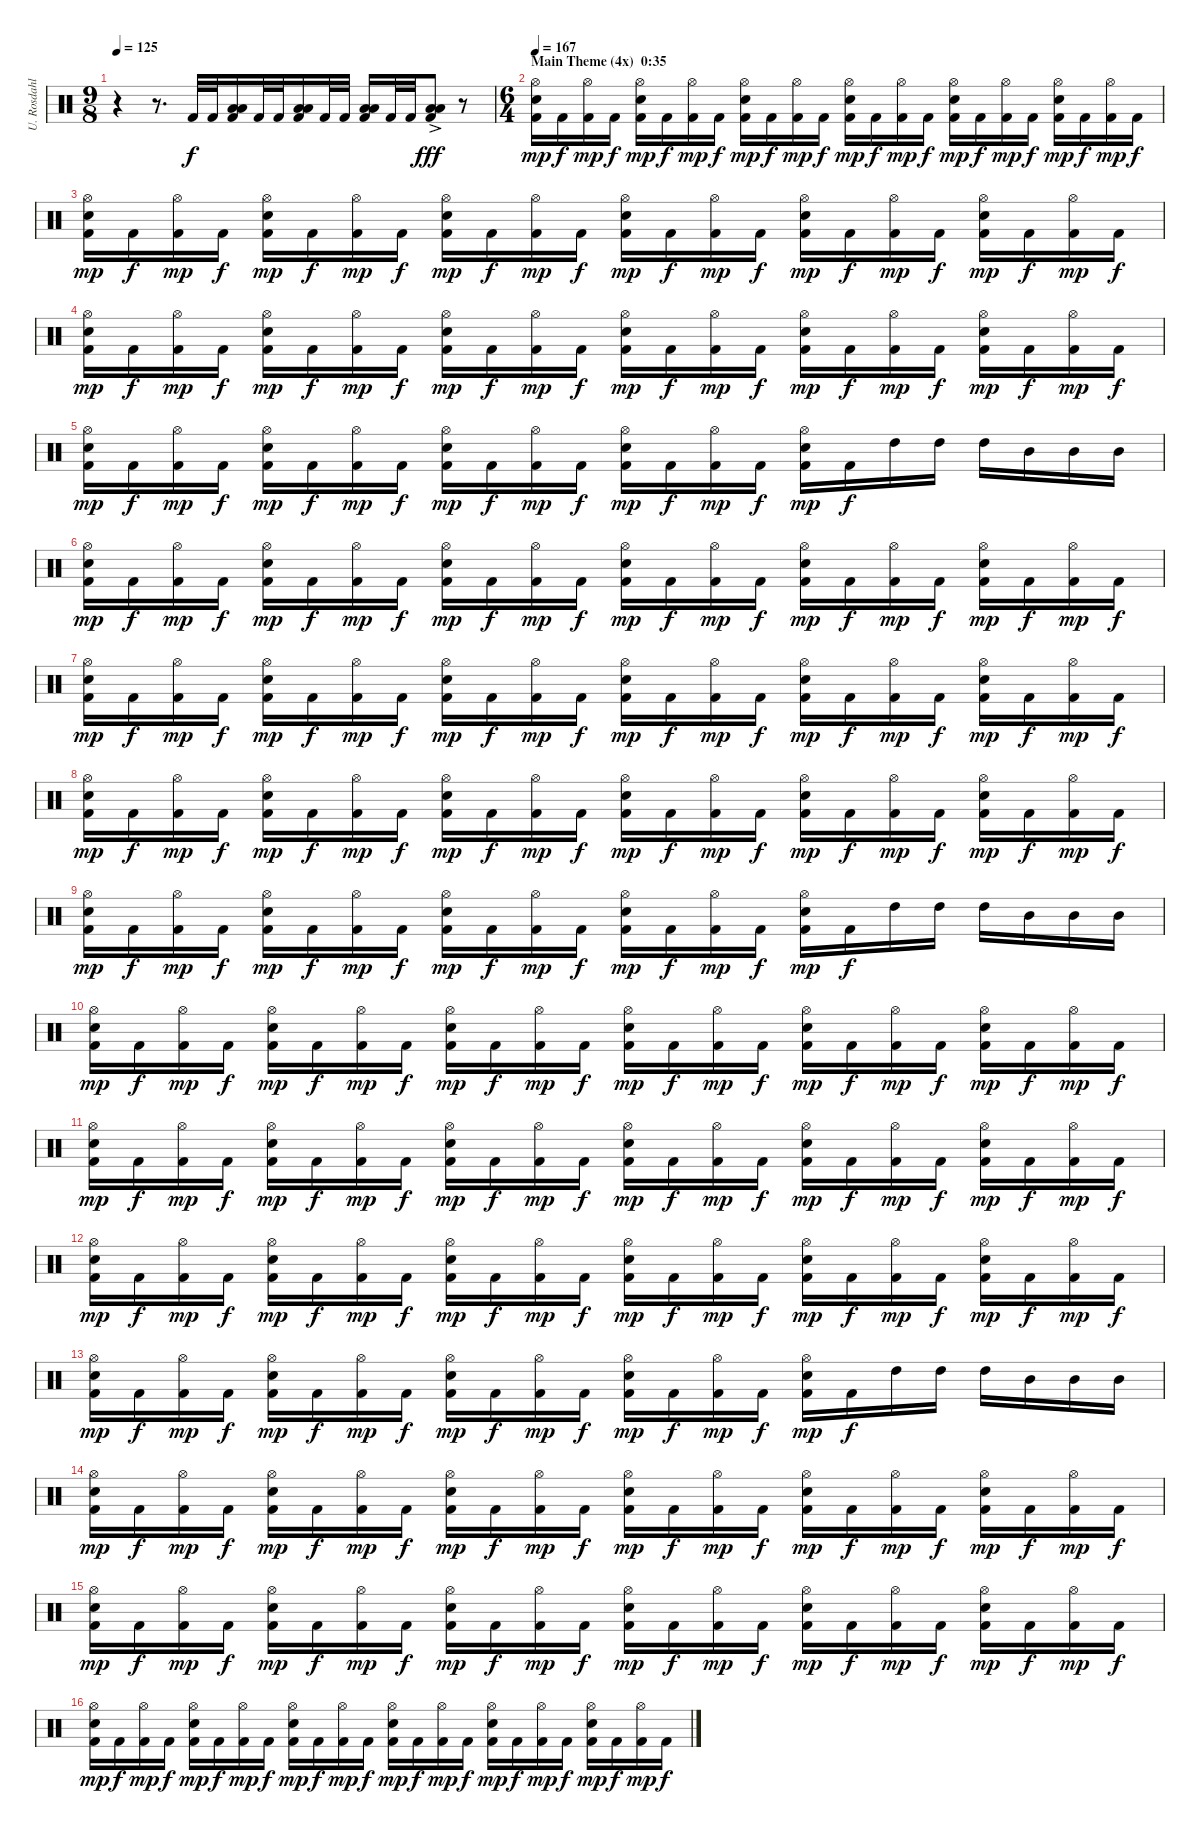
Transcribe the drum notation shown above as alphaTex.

\track ("U. Rosdahl" "U. Rosdahl") {instrument percussion}
\staff {score}
\articulation defaults
\ts (9 8)
\tempo 125
\clef neutral
\ks c
r.4{dy f} r.8{d} "Kick (hit) 2".32 "Kick (hit) 2".32 ("Kick (hit) 2" "Low Tom (hit)" "Low Floor Tom (hit)").16 "Kick (hit) 2".32 "Kick (hit) 2".32 ("Kick (hit) 2" "Low Tom (hit)" "Low Floor Tom (hit)").16 "Kick (hit) 2".32 "Kick (hit) 2".32 ("Kick (hit) 2" "Low Tom (hit)" "Low Floor Tom (hit)").16 "Kick (hit) 2".32 "Kick (hit) 2".32 ("Kick (hit) 2"{ac} "Low Tom (hit)"{ac} "Low Floor Tom (hit)"{ac}).8{dy fff} r.8 |
\ts (6 4)
\section ("" "Main Theme (4x)  0:35")
\tempo 167
("Kick (hit) 2" "Electric Snare (hit)" "Hi-Hat (open)").16{dy mp} "Kick (hit) 2".16{dy f} ("Kick (hit) 2" "Hi-Hat (open)").16{dy mp} "Kick (hit) 2".16{dy f} ("Kick (hit) 2" "Electric Snare (hit)" "Hi-Hat (open)").16{dy mp} "Kick (hit) 2".16{dy f} ("Kick (hit) 2" "Hi-Hat (open)").16{dy mp} "Kick (hit) 2".16{dy f} ("Kick (hit) 2" "Electric Snare (hit)" "Hi-Hat (open)").16{dy mp} "Kick (hit) 2".16{dy f} ("Kick (hit) 2" "Hi-Hat (open)").16{dy mp} "Kick (hit) 2".16{dy f} ("Kick (hit) 2" "Electric Snare (hit)" "Hi-Hat (open)").16{dy mp} "Kick (hit) 2".16{dy f} ("Kick (hit) 2" "Hi-Hat (open)").16{dy mp} "Kick (hit) 2".16{dy f} ("Kick (hit) 2" "Electric Snare (hit)" "Hi-Hat (open)").16{dy mp} "Kick (hit) 2".16{dy f} ("Kick (hit) 2" "Hi-Hat (open)").16{dy mp} "Kick (hit) 2".16{dy f} ("Kick (hit) 2" "Electric Snare (hit)" "Hi-Hat (open)").16{dy mp} "Kick (hit) 2".16{dy f} ("Kick (hit) 2" "Hi-Hat (open)").16{dy mp} "Kick (hit) 2".16{dy f} |
("Kick (hit) 2" "Electric Snare (hit)" "Hi-Hat (open)").16{dy mp} "Kick (hit) 2".16{dy f} ("Kick (hit) 2" "Hi-Hat (open)").16{dy mp} "Kick (hit) 2".16{dy f} ("Kick (hit) 2" "Electric Snare (hit)" "Hi-Hat (open)").16{dy mp} "Kick (hit) 2".16{dy f} ("Kick (hit) 2" "Hi-Hat (open)").16{dy mp} "Kick (hit) 2".16{dy f} ("Kick (hit) 2" "Electric Snare (hit)" "Hi-Hat (open)").16{dy mp} "Kick (hit) 2".16{dy f} ("Kick (hit) 2" "Hi-Hat (open)").16{dy mp} "Kick (hit) 2".16{dy f} ("Kick (hit) 2" "Electric Snare (hit)" "Hi-Hat (open)").16{dy mp} "Kick (hit) 2".16{dy f} ("Kick (hit) 2" "Hi-Hat (open)").16{dy mp} "Kick (hit) 2".16{dy f} ("Kick (hit) 2" "Electric Snare (hit)" "Hi-Hat (open)").16{dy mp} "Kick (hit) 2".16{dy f} ("Kick (hit) 2" "Hi-Hat (open)").16{dy mp} "Kick (hit) 2".16{dy f} ("Kick (hit) 2" "Electric Snare (hit)" "Hi-Hat (open)").16{dy mp} "Kick (hit) 2".16{dy f} ("Kick (hit) 2" "Hi-Hat (open)").16{dy mp} "Kick (hit) 2".16{dy f} |
("Kick (hit) 2" "Electric Snare (hit)" "Hi-Hat (open)").16{dy mp} "Kick (hit) 2".16{dy f} ("Kick (hit) 2" "Hi-Hat (open)").16{dy mp} "Kick (hit) 2".16{dy f} ("Kick (hit) 2" "Electric Snare (hit)" "Hi-Hat (open)").16{dy mp} "Kick (hit) 2".16{dy f} ("Kick (hit) 2" "Hi-Hat (open)").16{dy mp} "Kick (hit) 2".16{dy f} ("Kick (hit) 2" "Electric Snare (hit)" "Hi-Hat (open)").16{dy mp} "Kick (hit) 2".16{dy f} ("Kick (hit) 2" "Hi-Hat (open)").16{dy mp} "Kick (hit) 2".16{dy f} ("Kick (hit) 2" "Electric Snare (hit)" "Hi-Hat (open)").16{dy mp} "Kick (hit) 2".16{dy f} ("Kick (hit) 2" "Hi-Hat (open)").16{dy mp} "Kick (hit) 2".16{dy f} ("Kick (hit) 2" "Electric Snare (hit)" "Hi-Hat (open)").16{dy mp} "Kick (hit) 2".16{dy f} ("Kick (hit) 2" "Hi-Hat (open)").16{dy mp} "Kick (hit) 2".16{dy f} ("Kick (hit) 2" "Electric Snare (hit)" "Hi-Hat (open)").16{dy mp} "Kick (hit) 2".16{dy f} ("Kick (hit) 2" "Hi-Hat (open)").16{dy mp} "Kick (hit) 2".16{dy f} |
("Kick (hit) 2" "Electric Snare (hit)" "Hi-Hat (open)").16{dy mp} "Kick (hit) 2".16{dy f} ("Kick (hit) 2" "Hi-Hat (open)").16{dy mp} "Kick (hit) 2".16{dy f} ("Kick (hit) 2" "Electric Snare (hit)" "Hi-Hat (open)").16{dy mp} "Kick (hit) 2".16{dy f} ("Kick (hit) 2" "Hi-Hat (open)").16{dy mp} "Kick (hit) 2".16{dy f} ("Kick (hit) 2" "Electric Snare (hit)" "Hi-Hat (open)").16{dy mp} "Kick (hit) 2".16{dy f} ("Kick (hit) 2" "Hi-Hat (open)").16{dy mp} "Kick (hit) 2".16{dy f} ("Kick (hit) 2" "Electric Snare (hit)" "Hi-Hat (open)").16{dy mp} "Kick (hit) 2".16{dy f} ("Kick (hit) 2" "Hi-Hat (open)").16{dy mp} "Kick (hit) 2".16{dy f} ("Kick (hit) 2" "Electric Snare (hit)" "Hi-Hat (open)").16{dy mp} "Kick (hit) 2".16{dy f} "High Tom (hit)".16 "High Tom (hit)".16 "High Tom (hit)".16 "Mid Tom (hit)".16 "Mid Tom (hit)".16 "Mid Tom (hit)".16 |
("Kick (hit) 2" "Electric Snare (hit)" "Hi-Hat (open)").16{dy mp} "Kick (hit) 2".16{dy f} ("Kick (hit) 2" "Hi-Hat (open)").16{dy mp} "Kick (hit) 2".16{dy f} ("Kick (hit) 2" "Electric Snare (hit)" "Hi-Hat (open)").16{dy mp} "Kick (hit) 2".16{dy f} ("Kick (hit) 2" "Hi-Hat (open)").16{dy mp} "Kick (hit) 2".16{dy f} ("Kick (hit) 2" "Electric Snare (hit)" "Hi-Hat (open)").16{dy mp} "Kick (hit) 2".16{dy f} ("Kick (hit) 2" "Hi-Hat (open)").16{dy mp} "Kick (hit) 2".16{dy f} ("Kick (hit) 2" "Electric Snare (hit)" "Hi-Hat (open)").16{dy mp} "Kick (hit) 2".16{dy f} ("Kick (hit) 2" "Hi-Hat (open)").16{dy mp} "Kick (hit) 2".16{dy f} ("Kick (hit) 2" "Electric Snare (hit)" "Hi-Hat (open)").16{dy mp} "Kick (hit) 2".16{dy f} ("Kick (hit) 2" "Hi-Hat (open)").16{dy mp} "Kick (hit) 2".16{dy f} ("Kick (hit) 2" "Electric Snare (hit)" "Hi-Hat (open)").16{dy mp} "Kick (hit) 2".16{dy f} ("Kick (hit) 2" "Hi-Hat (open)").16{dy mp} "Kick (hit) 2".16{dy f} |
("Kick (hit) 2" "Electric Snare (hit)" "Hi-Hat (open)").16{dy mp} "Kick (hit) 2".16{dy f} ("Kick (hit) 2" "Hi-Hat (open)").16{dy mp} "Kick (hit) 2".16{dy f} ("Kick (hit) 2" "Electric Snare (hit)" "Hi-Hat (open)").16{dy mp} "Kick (hit) 2".16{dy f} ("Kick (hit) 2" "Hi-Hat (open)").16{dy mp} "Kick (hit) 2".16{dy f} ("Kick (hit) 2" "Electric Snare (hit)" "Hi-Hat (open)").16{dy mp} "Kick (hit) 2".16{dy f} ("Kick (hit) 2" "Hi-Hat (open)").16{dy mp} "Kick (hit) 2".16{dy f} ("Kick (hit) 2" "Electric Snare (hit)" "Hi-Hat (open)").16{dy mp} "Kick (hit) 2".16{dy f} ("Kick (hit) 2" "Hi-Hat (open)").16{dy mp} "Kick (hit) 2".16{dy f} ("Kick (hit) 2" "Electric Snare (hit)" "Hi-Hat (open)").16{dy mp} "Kick (hit) 2".16{dy f} ("Kick (hit) 2" "Hi-Hat (open)").16{dy mp} "Kick (hit) 2".16{dy f} ("Kick (hit) 2" "Electric Snare (hit)" "Hi-Hat (open)").16{dy mp} "Kick (hit) 2".16{dy f} ("Kick (hit) 2" "Hi-Hat (open)").16{dy mp} "Kick (hit) 2".16{dy f} |
("Kick (hit) 2" "Electric Snare (hit)" "Hi-Hat (open)").16{dy mp} "Kick (hit) 2".16{dy f} ("Kick (hit) 2" "Hi-Hat (open)").16{dy mp} "Kick (hit) 2".16{dy f} ("Kick (hit) 2" "Electric Snare (hit)" "Hi-Hat (open)").16{dy mp} "Kick (hit) 2".16{dy f} ("Kick (hit) 2" "Hi-Hat (open)").16{dy mp} "Kick (hit) 2".16{dy f} ("Kick (hit) 2" "Electric Snare (hit)" "Hi-Hat (open)").16{dy mp} "Kick (hit) 2".16{dy f} ("Kick (hit) 2" "Hi-Hat (open)").16{dy mp} "Kick (hit) 2".16{dy f} ("Kick (hit) 2" "Electric Snare (hit)" "Hi-Hat (open)").16{dy mp} "Kick (hit) 2".16{dy f} ("Kick (hit) 2" "Hi-Hat (open)").16{dy mp} "Kick (hit) 2".16{dy f} ("Kick (hit) 2" "Electric Snare (hit)" "Hi-Hat (open)").16{dy mp} "Kick (hit) 2".16{dy f} ("Kick (hit) 2" "Hi-Hat (open)").16{dy mp} "Kick (hit) 2".16{dy f} ("Kick (hit) 2" "Electric Snare (hit)" "Hi-Hat (open)").16{dy mp} "Kick (hit) 2".16{dy f} ("Kick (hit) 2" "Hi-Hat (open)").16{dy mp} "Kick (hit) 2".16{dy f} |
("Kick (hit) 2" "Electric Snare (hit)" "Hi-Hat (open)").16{dy mp} "Kick (hit) 2".16{dy f} ("Kick (hit) 2" "Hi-Hat (open)").16{dy mp} "Kick (hit) 2".16{dy f} ("Kick (hit) 2" "Electric Snare (hit)" "Hi-Hat (open)").16{dy mp} "Kick (hit) 2".16{dy f} ("Kick (hit) 2" "Hi-Hat (open)").16{dy mp} "Kick (hit) 2".16{dy f} ("Kick (hit) 2" "Electric Snare (hit)" "Hi-Hat (open)").16{dy mp} "Kick (hit) 2".16{dy f} ("Kick (hit) 2" "Hi-Hat (open)").16{dy mp} "Kick (hit) 2".16{dy f} ("Kick (hit) 2" "Electric Snare (hit)" "Hi-Hat (open)").16{dy mp} "Kick (hit) 2".16{dy f} ("Kick (hit) 2" "Hi-Hat (open)").16{dy mp} "Kick (hit) 2".16{dy f} ("Kick (hit) 2" "Electric Snare (hit)" "Hi-Hat (open)").16{dy mp} "Kick (hit) 2".16{dy f} "High Tom (hit)".16 "High Tom (hit)".16 "High Tom (hit)".16 "Mid Tom (hit)".16 "Mid Tom (hit)".16 "Mid Tom (hit)".16 |
("Kick (hit) 2" "Electric Snare (hit)" "Hi-Hat (open)").16{dy mp} "Kick (hit) 2".16{dy f} ("Kick (hit) 2" "Hi-Hat (open)").16{dy mp} "Kick (hit) 2".16{dy f} ("Kick (hit) 2" "Electric Snare (hit)" "Hi-Hat (open)").16{dy mp} "Kick (hit) 2".16{dy f} ("Kick (hit) 2" "Hi-Hat (open)").16{dy mp} "Kick (hit) 2".16{dy f} ("Kick (hit) 2" "Electric Snare (hit)" "Hi-Hat (open)").16{dy mp} "Kick (hit) 2".16{dy f} ("Kick (hit) 2" "Hi-Hat (open)").16{dy mp} "Kick (hit) 2".16{dy f} ("Kick (hit) 2" "Electric Snare (hit)" "Hi-Hat (open)").16{dy mp} "Kick (hit) 2".16{dy f} ("Kick (hit) 2" "Hi-Hat (open)").16{dy mp} "Kick (hit) 2".16{dy f} ("Kick (hit) 2" "Electric Snare (hit)" "Hi-Hat (open)").16{dy mp} "Kick (hit) 2".16{dy f} ("Kick (hit) 2" "Hi-Hat (open)").16{dy mp} "Kick (hit) 2".16{dy f} ("Kick (hit) 2" "Electric Snare (hit)" "Hi-Hat (open)").16{dy mp} "Kick (hit) 2".16{dy f} ("Kick (hit) 2" "Hi-Hat (open)").16{dy mp} "Kick (hit) 2".16{dy f} |
("Kick (hit) 2" "Electric Snare (hit)" "Hi-Hat (open)").16{dy mp} "Kick (hit) 2".16{dy f} ("Kick (hit) 2" "Hi-Hat (open)").16{dy mp} "Kick (hit) 2".16{dy f} ("Kick (hit) 2" "Electric Snare (hit)" "Hi-Hat (open)").16{dy mp} "Kick (hit) 2".16{dy f} ("Kick (hit) 2" "Hi-Hat (open)").16{dy mp} "Kick (hit) 2".16{dy f} ("Kick (hit) 2" "Electric Snare (hit)" "Hi-Hat (open)").16{dy mp} "Kick (hit) 2".16{dy f} ("Kick (hit) 2" "Hi-Hat (open)").16{dy mp} "Kick (hit) 2".16{dy f} ("Kick (hit) 2" "Electric Snare (hit)" "Hi-Hat (open)").16{dy mp} "Kick (hit) 2".16{dy f} ("Kick (hit) 2" "Hi-Hat (open)").16{dy mp} "Kick (hit) 2".16{dy f} ("Kick (hit) 2" "Electric Snare (hit)" "Hi-Hat (open)").16{dy mp} "Kick (hit) 2".16{dy f} ("Kick (hit) 2" "Hi-Hat (open)").16{dy mp} "Kick (hit) 2".16{dy f} ("Kick (hit) 2" "Electric Snare (hit)" "Hi-Hat (open)").16{dy mp} "Kick (hit) 2".16{dy f} ("Kick (hit) 2" "Hi-Hat (open)").16{dy mp} "Kick (hit) 2".16{dy f} |
("Kick (hit) 2" "Electric Snare (hit)" "Hi-Hat (open)").16{dy mp} "Kick (hit) 2".16{dy f} ("Kick (hit) 2" "Hi-Hat (open)").16{dy mp} "Kick (hit) 2".16{dy f} ("Kick (hit) 2" "Electric Snare (hit)" "Hi-Hat (open)").16{dy mp} "Kick (hit) 2".16{dy f} ("Kick (hit) 2" "Hi-Hat (open)").16{dy mp} "Kick (hit) 2".16{dy f} ("Kick (hit) 2" "Electric Snare (hit)" "Hi-Hat (open)").16{dy mp} "Kick (hit) 2".16{dy f} ("Kick (hit) 2" "Hi-Hat (open)").16{dy mp} "Kick (hit) 2".16{dy f} ("Kick (hit) 2" "Electric Snare (hit)" "Hi-Hat (open)").16{dy mp} "Kick (hit) 2".16{dy f} ("Kick (hit) 2" "Hi-Hat (open)").16{dy mp} "Kick (hit) 2".16{dy f} ("Kick (hit) 2" "Electric Snare (hit)" "Hi-Hat (open)").16{dy mp} "Kick (hit) 2".16{dy f} ("Kick (hit) 2" "Hi-Hat (open)").16{dy mp} "Kick (hit) 2".16{dy f} ("Kick (hit) 2" "Electric Snare (hit)" "Hi-Hat (open)").16{dy mp} "Kick (hit) 2".16{dy f} ("Kick (hit) 2" "Hi-Hat (open)").16{dy mp} "Kick (hit) 2".16{dy f} |
("Kick (hit) 2" "Electric Snare (hit)" "Hi-Hat (open)").16{dy mp} "Kick (hit) 2".16{dy f} ("Kick (hit) 2" "Hi-Hat (open)").16{dy mp} "Kick (hit) 2".16{dy f} ("Kick (hit) 2" "Electric Snare (hit)" "Hi-Hat (open)").16{dy mp} "Kick (hit) 2".16{dy f} ("Kick (hit) 2" "Hi-Hat (open)").16{dy mp} "Kick (hit) 2".16{dy f} ("Kick (hit) 2" "Electric Snare (hit)" "Hi-Hat (open)").16{dy mp} "Kick (hit) 2".16{dy f} ("Kick (hit) 2" "Hi-Hat (open)").16{dy mp} "Kick (hit) 2".16{dy f} ("Kick (hit) 2" "Electric Snare (hit)" "Hi-Hat (open)").16{dy mp} "Kick (hit) 2".16{dy f} ("Kick (hit) 2" "Hi-Hat (open)").16{dy mp} "Kick (hit) 2".16{dy f} ("Kick (hit) 2" "Electric Snare (hit)" "Hi-Hat (open)").16{dy mp} "Kick (hit) 2".16{dy f} "High Tom (hit)".16 "High Tom (hit)".16 "High Tom (hit)".16 "Mid Tom (hit)".16 "Mid Tom (hit)".16 "Mid Tom (hit)".16 |
("Kick (hit) 2" "Electric Snare (hit)" "Hi-Hat (open)").16{dy mp} "Kick (hit) 2".16{dy f} ("Kick (hit) 2" "Hi-Hat (open)").16{dy mp} "Kick (hit) 2".16{dy f} ("Kick (hit) 2" "Electric Snare (hit)" "Hi-Hat (open)").16{dy mp} "Kick (hit) 2".16{dy f} ("Kick (hit) 2" "Hi-Hat (open)").16{dy mp} "Kick (hit) 2".16{dy f} ("Kick (hit) 2" "Electric Snare (hit)" "Hi-Hat (open)").16{dy mp} "Kick (hit) 2".16{dy f} ("Kick (hit) 2" "Hi-Hat (open)").16{dy mp} "Kick (hit) 2".16{dy f} ("Kick (hit) 2" "Electric Snare (hit)" "Hi-Hat (open)").16{dy mp} "Kick (hit) 2".16{dy f} ("Kick (hit) 2" "Hi-Hat (open)").16{dy mp} "Kick (hit) 2".16{dy f} ("Kick (hit) 2" "Electric Snare (hit)" "Hi-Hat (open)").16{dy mp} "Kick (hit) 2".16{dy f} ("Kick (hit) 2" "Hi-Hat (open)").16{dy mp} "Kick (hit) 2".16{dy f} ("Kick (hit) 2" "Electric Snare (hit)" "Hi-Hat (open)").16{dy mp} "Kick (hit) 2".16{dy f} ("Kick (hit) 2" "Hi-Hat (open)").16{dy mp} "Kick (hit) 2".16{dy f} |
("Kick (hit) 2" "Electric Snare (hit)" "Hi-Hat (open)").16{dy mp} "Kick (hit) 2".16{dy f} ("Kick (hit) 2" "Hi-Hat (open)").16{dy mp} "Kick (hit) 2".16{dy f} ("Kick (hit) 2" "Electric Snare (hit)" "Hi-Hat (open)").16{dy mp} "Kick (hit) 2".16{dy f} ("Kick (hit) 2" "Hi-Hat (open)").16{dy mp} "Kick (hit) 2".16{dy f} ("Kick (hit) 2" "Electric Snare (hit)" "Hi-Hat (open)").16{dy mp} "Kick (hit) 2".16{dy f} ("Kick (hit) 2" "Hi-Hat (open)").16{dy mp} "Kick (hit) 2".16{dy f} ("Kick (hit) 2" "Electric Snare (hit)" "Hi-Hat (open)").16{dy mp} "Kick (hit) 2".16{dy f} ("Kick (hit) 2" "Hi-Hat (open)").16{dy mp} "Kick (hit) 2".16{dy f} ("Kick (hit) 2" "Electric Snare (hit)" "Hi-Hat (open)").16{dy mp} "Kick (hit) 2".16{dy f} ("Kick (hit) 2" "Hi-Hat (open)").16{dy mp} "Kick (hit) 2".16{dy f} ("Kick (hit) 2" "Electric Snare (hit)" "Hi-Hat (open)").16{dy mp} "Kick (hit) 2".16{dy f} ("Kick (hit) 2" "Hi-Hat (open)").16{dy mp} "Kick (hit) 2".16{dy f} |
("Kick (hit) 2" "Electric Snare (hit)" "Hi-Hat (open)").16{dy mp} "Kick (hit) 2".16{dy f} ("Kick (hit) 2" "Hi-Hat (open)").16{dy mp} "Kick (hit) 2".16{dy f} ("Kick (hit) 2" "Electric Snare (hit)" "Hi-Hat (open)").16{dy mp} "Kick (hit) 2".16{dy f} ("Kick (hit) 2" "Hi-Hat (open)").16{dy mp} "Kick (hit) 2".16{dy f} ("Kick (hit) 2" "Electric Snare (hit)" "Hi-Hat (open)").16{dy mp} "Kick (hit) 2".16{dy f} ("Kick (hit) 2" "Hi-Hat (open)").16{dy mp} "Kick (hit) 2".16{dy f} ("Kick (hit) 2" "Electric Snare (hit)" "Hi-Hat (open)").16{dy mp} "Kick (hit) 2".16{dy f} ("Kick (hit) 2" "Hi-Hat (open)").16{dy mp} "Kick (hit) 2".16{dy f} ("Kick (hit) 2" "Electric Snare (hit)" "Hi-Hat (open)").16{dy mp} "Kick (hit) 2".16{dy f} ("Kick (hit) 2" "Hi-Hat (open)").16{dy mp} "Kick (hit) 2".16{dy f} ("Kick (hit) 2" "Electric Snare (hit)" "Hi-Hat (open)").16{dy mp} "Kick (hit) 2".16{dy f} ("Kick (hit) 2" "Hi-Hat (open)").16{dy mp} "Kick (hit) 2".16{dy f}
